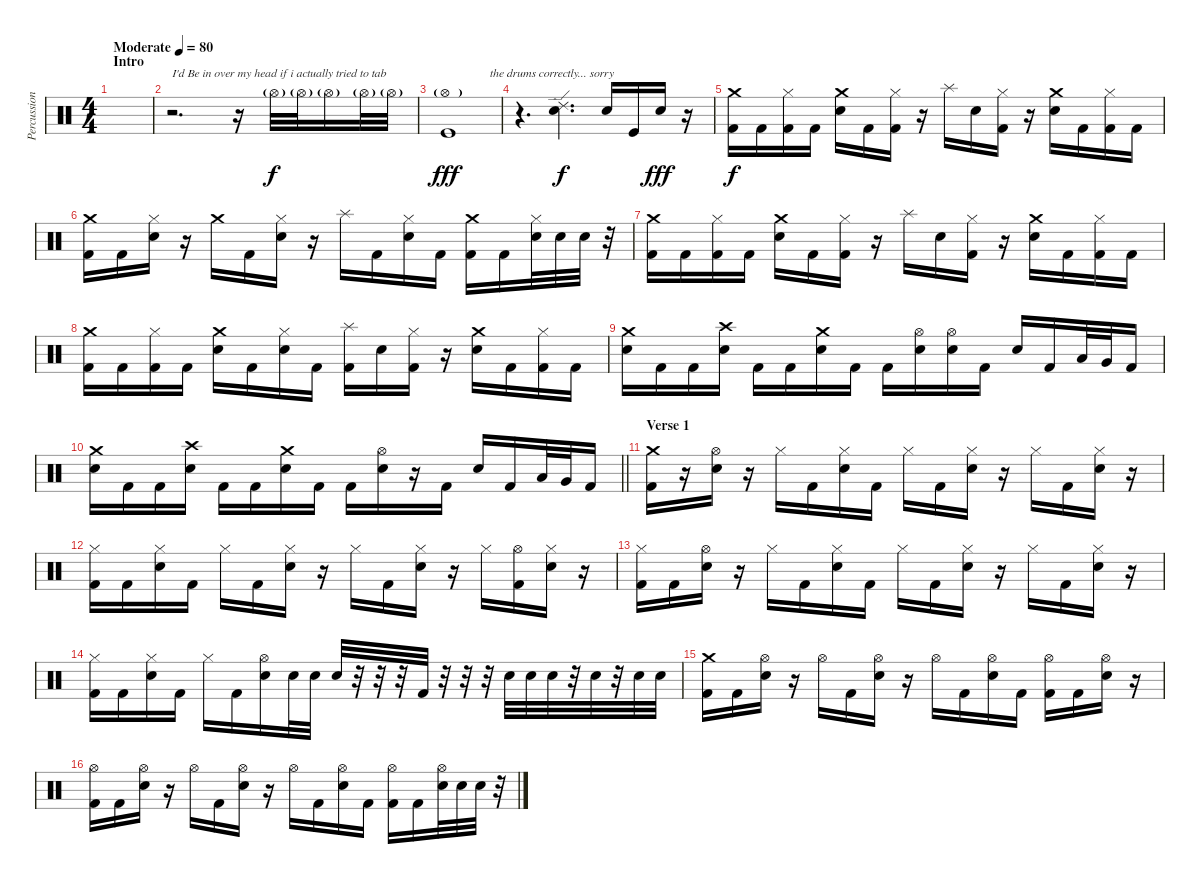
\track ("Percussion" "Percussion") {instrument percussion}
\staff {score}
\articulation defaults
\ts (4 4)
\section ("" "Intro")
\tempo (80 "Moderate")
\clef neutral
\ks c
|
r.2{d txt "I'd Be in over my head if i actually tried to tab"} r.16 "Hi-Hat (open)"{g}.32 "Hi-Hat (open)"{g}.32 "Hi-Hat (open)"{g}.16 "Hi-Hat (open)"{g}.32 "Hi-Hat (open)"{g}.32 |
("Hi-Hat (open)"{g} "Kick (hit)").1{txt "              the drums correctly... sorry" dy fff} |
r.4{d} ("Ride (edge) 2" "Electric Snare (hit)").4{d dy f} "Snare (hit) 2".16 "Kick (hit)".16 "Snare (hit) 2".16{dy fff} r.16 |
("Crash medium (hit)" "Kick (hit) 2").16{dy f} "Kick (hit) 2".16 ("Hi-Hat (closed)" "Kick (hit) 2").16 "Kick (hit) 2".16 ("Crash medium (hit)" "Electric Snare (hit)").16 "Kick (hit) 2".16 ("Hi-Hat (closed)" "Kick (hit) 2").16 r.16 "Splash (hit)".16 "Electric Snare (hit)".16 ("Hi-Hat (closed)" "Kick (hit) 2").16 r.16 ("Crash medium (hit)" "Electric Snare (hit)").16 "Kick (hit) 2".16 ("Hi-Hat (closed)" "Kick (hit) 2").16 "Kick (hit) 2".16 |
("Crash medium (hit)" "Kick (hit) 2").16 "Kick (hit) 2".16 ("Hi-Hat (closed)" "Electric Snare (hit)").16 r.16 "Crash medium (hit)".16 "Kick (hit) 2".16 ("Hi-Hat (closed)" "Electric Snare (hit)").16 r.16 "Splash (hit)".16 "Kick (hit) 2".16 ("Hi-Hat (closed)" "Electric Snare (hit)").16 "Kick (hit) 2".16 ("Crash medium (hit)" "Kick (hit) 2").16 "Kick (hit) 2".16 ("Hi-Hat (closed)" "Electric Snare (hit)").32 "Electric Snare (hit)".32 "Electric Snare (hit)".32 r.32 |
("Crash medium (hit)" "Kick (hit) 2").16 "Kick (hit) 2".16 ("Hi-Hat (closed)" "Kick (hit) 2").16 "Kick (hit) 2".16 ("Crash medium (hit)" "Electric Snare (hit)").16 "Kick (hit) 2".16 ("Hi-Hat (closed)" "Kick (hit) 2").16 r.16 "Splash (hit)".16 "Electric Snare (hit)".16 ("Hi-Hat (closed)" "Kick (hit) 2").16 r.16 ("Crash medium (hit)" "Electric Snare (hit)").16 "Kick (hit) 2".16 ("Hi-Hat (closed)" "Kick (hit) 2").16 "Kick (hit) 2".16 |
("Crash medium (hit)" "Kick (hit) 2").16 "Kick (hit) 2".16 ("Hi-Hat (closed)" "Kick (hit) 2").16 "Kick (hit) 2".16 ("Crash medium (hit)" "Electric Snare (hit)").16 "Kick (hit) 2".16 ("Hi-Hat (closed)" "Electric Snare (hit)").16 "Kick (hit) 2".16 ("Splash (hit)" "Kick (hit) 2").16 "Electric Snare (hit)".16 ("Hi-Hat (closed)" "Kick (hit) 2").16 r.16 ("Crash medium (hit)" "Electric Snare (hit)").16 "Kick (hit) 2".16 ("Hi-Hat (closed)" "Kick (hit) 2").16 "Kick (hit) 2".16 |
("Crash medium (hit)" "Electric Snare (hit)").16 "Kick (hit) 2".16 "Kick (hit) 2".16 ("Crash high (hit)" "Electric Snare (hit)").16 "Kick (hit) 2".16 "Kick (hit) 2".16 ("Crash medium (hit)" "Electric Snare (hit)").16 "Kick (hit) 2".16 "Kick (hit) 2".16 ("Hi-Hat (open)" "Electric Snare (hit)").16 ("Hi-Hat (open)" "Electric Snare (hit)").16 "Kick (hit) 2".16 "Electric Snare (hit)".16 "Kick (hit) 2".16 "Low Floor Tom (hit)".32 "Very Low Tom (hit)".32 "Kick (hit) 2".16 |
\barLineRight lightlight
("Crash medium (hit)" "Electric Snare (hit)").16 "Kick (hit) 2".16 "Kick (hit) 2".16 ("Crash high (hit)" "Electric Snare (hit)").16 "Kick (hit) 2".16 "Kick (hit) 2".16 ("Crash medium (hit)" "Electric Snare (hit)").16 "Kick (hit) 2".16 "Kick (hit) 2".16 ("Hi-Hat (open)" "Electric Snare (hit)").16 r.16 "Kick (hit) 2".16 "Electric Snare (hit)".16 "Kick (hit) 2".16 "Low Floor Tom (hit)".32 "Very Low Tom (hit)".32 "Kick (hit) 2".16 |
\section ("" "Verse 1")
("Crash medium (hit)" "Kick (hit) 2").16 r.16 ("Hi-Hat (open)" "Electric Snare (hit)").16 r.16 "Hi-Hat (closed)".16 "Kick (hit) 2".16 ("Hi-Hat (closed)" "Electric Snare (hit)").16 "Kick (hit) 2".16 "Hi-Hat (closed)".16 "Kick (hit) 2".16 ("Hi-Hat (closed)" "Electric Snare (hit)").16 r.16 "Hi-Hat (closed)".16 "Kick (hit) 2".16 ("Hi-Hat (closed)" "Electric Snare (hit)").16 r.16 |
("Hi-Hat (closed)" "Kick (hit) 2").16 "Kick (hit) 2".16 ("Hi-Hat (closed)" "Electric Snare (hit)").16 "Kick (hit) 2".16 "Hi-Hat (closed)".16 "Kick (hit) 2".16 ("Hi-Hat (closed)" "Electric Snare (hit)").16 r.16 "Hi-Hat (closed)".16 "Kick (hit) 2".16 ("Hi-Hat (closed)" "Electric Snare (hit)").16 r.16 "Hi-Hat (closed)".16 ("Hi-Hat (open)" "Kick (hit) 2").16 ("Hi-Hat (closed)" "Electric Snare (hit)").16 r.16 |
("Hi-Hat (closed)" "Kick (hit) 2").16 "Kick (hit) 2".16 ("Hi-Hat (open)" "Electric Snare (hit)").16 r.16 "Hi-Hat (closed)".16 "Kick (hit) 2".16 ("Hi-Hat (closed)" "Electric Snare (hit)").16 "Kick (hit) 2".16 "Hi-Hat (closed)".16 "Kick (hit) 2".16 ("Hi-Hat (closed)" "Electric Snare (hit)").16 r.16 "Hi-Hat (closed)".16 "Kick (hit) 2".16 ("Hi-Hat (closed)" "Electric Snare (hit)").16 r.16 |
("Hi-Hat (closed)" "Kick (hit) 2").16 "Kick (hit) 2".16 ("Hi-Hat (closed)" "Electric Snare (hit)").16 "Kick (hit) 2".16 "Hi-Hat (closed)".16 "Kick (hit) 2".16 ("Hi-Hat (open)" "Electric Snare (hit)").16 "Electric Snare (hit)".32 "Electric Snare (hit)".32 "Electric Snare (hit)".32 r.32 r.32 r.32 "Kick (hit) 2".32 r.32 r.32 r.32 "Electric Snare (hit)".32 "Electric Snare (hit)".32 "Electric Snare (hit)".32 r.32 "Electric Snare (hit)".32 r.32 "Electric Snare (hit)".32 "Electric Snare (hit)".32 |
("Crash medium (hit)" "Kick (hit) 2").16 "Kick (hit) 2".16 ("Hi-Hat (open)" "Electric Snare (hit)").16 r.16 "Hi-Hat (open)".16 "Kick (hit) 2".16 ("Hi-Hat (open)" "Electric Snare (hit)").16 r.16 "Hi-Hat (open)".16 "Kick (hit) 2".16 ("Hi-Hat (open)" "Electric Snare (hit)").16 "Kick (hit) 2".16 ("Hi-Hat (open)" "Kick (hit) 2").16 "Kick (hit) 2".16 ("Hi-Hat (open)" "Electric Snare (hit)").16 r.16 |
("Hi-Hat (open)" "Kick (hit) 2").16 "Kick (hit) 2".16 ("Hi-Hat (open)" "Electric Snare (hit)").16 r.16 "Hi-Hat (open)".16 "Kick (hit) 2".16 ("Hi-Hat (open)" "Electric Snare (hit)").16 r.16 "Hi-Hat (open)".16 "Kick (hit) 2".16 ("Hi-Hat (open)" "Electric Snare (hit)").16 "Kick (hit) 2".16 ("Hi-Hat (open)" "Kick (hit) 2").16 "Kick (hit) 2".16 ("Hi-Hat (open)" "Electric Snare (hit)").32 "Electric Snare (hit)".32 "Electric Snare (hit)".32 r.32
